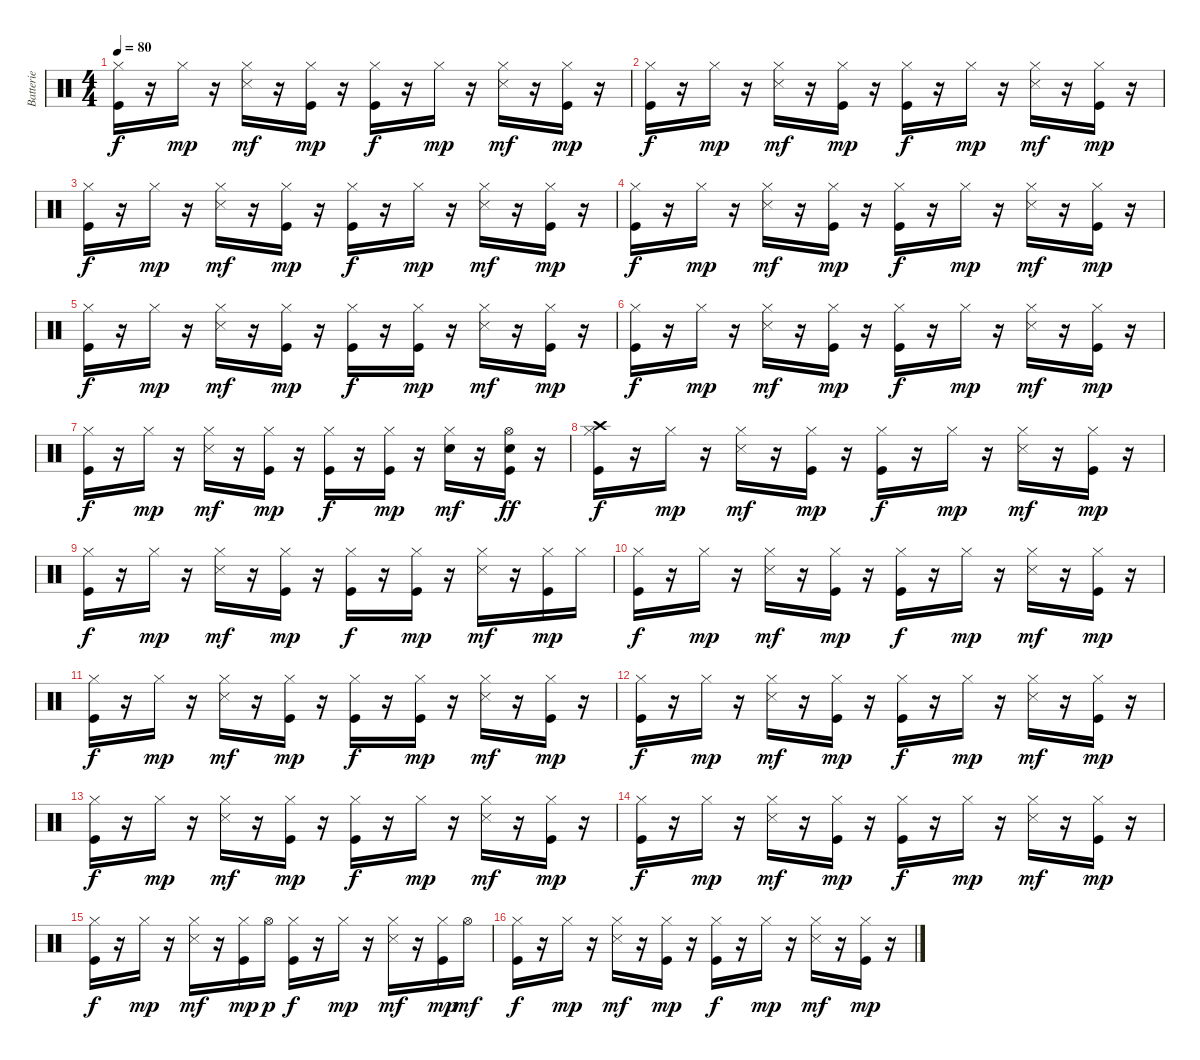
\track ("Batterie" "Batterie") {instrument percussion}
\staff {score}
\articulation defaults
\ts (4 4)
\tempo 80
\clef neutral
\ks c
("Kick (hit)" "Hi-Hat (closed)").16{dy f} r.16 "Hi-Hat (closed)".16{dy mp} r.16 ("Hi-Hat (closed)" "Snare (side stick) 3").16{dy mf} r.16 ("Kick (hit)" "Hi-Hat (closed)").16{dy mp} r.16 ("Kick (hit)" "Hi-Hat (closed)").16{dy f} r.16 "Hi-Hat (closed)".16{dy mp} r.16 ("Hi-Hat (closed)" "Snare (side stick) 3").16{dy mf} r.16 ("Kick (hit)" "Hi-Hat (closed)").16{dy mp} r.16 |
("Kick (hit)" "Hi-Hat (closed)").16{dy f} r.16 "Hi-Hat (closed)".16{dy mp} r.16 ("Hi-Hat (closed)" "Snare (side stick) 3").16{dy mf} r.16 ("Kick (hit)" "Hi-Hat (closed)").16{dy mp} r.16 ("Kick (hit)" "Hi-Hat (closed)").16{dy f} r.16 "Hi-Hat (closed)".16{dy mp} r.16 ("Hi-Hat (closed)" "Snare (side stick) 3").16{dy mf} r.16 ("Kick (hit)" "Hi-Hat (closed)").16{dy mp} r.16 |
("Kick (hit)" "Hi-Hat (closed)").16{dy f} r.16 "Hi-Hat (closed)".16{dy mp} r.16 ("Hi-Hat (closed)" "Snare (side stick) 3").16{dy mf} r.16 ("Kick (hit)" "Hi-Hat (closed)").16{dy mp} r.16 ("Kick (hit)" "Hi-Hat (closed)").16{dy f} r.16 "Hi-Hat (closed)".16{dy mp} r.16 ("Hi-Hat (closed)" "Snare (side stick) 3").16{dy mf} r.16 ("Kick (hit)" "Hi-Hat (closed)").16{dy mp} r.16 |
("Kick (hit)" "Hi-Hat (closed)").16{dy f} r.16 "Hi-Hat (closed)".16{dy mp} r.16 ("Hi-Hat (closed)" "Snare (side stick) 3").16{dy mf} r.16 ("Kick (hit)" "Hi-Hat (closed)").16{dy mp} r.16 ("Kick (hit)" "Hi-Hat (closed)").16{dy f} r.16 "Hi-Hat (closed)".16{dy mp} r.16 ("Hi-Hat (closed)" "Snare (side stick) 3").16{dy mf} r.16 ("Kick (hit)" "Hi-Hat (closed)").16{dy mp} r.16 |
("Kick (hit)" "Hi-Hat (closed)").16{dy f} r.16 "Hi-Hat (closed)".16{dy mp} r.16 ("Hi-Hat (closed)" "Snare (side stick) 3").16{dy mf} r.16 ("Kick (hit)" "Hi-Hat (closed)").16{dy mp} r.16 ("Kick (hit)" "Hi-Hat (closed)").16{dy f} r.16 ("Kick (hit)" "Hi-Hat (closed)").16{dy mp} r.16 ("Hi-Hat (closed)" "Snare (side stick) 3").16{dy mf} r.16 ("Kick (hit)" "Hi-Hat (closed)").16{dy mp} r.16 |
("Kick (hit)" "Hi-Hat (closed)").16{dy f} r.16 "Hi-Hat (closed)".16{dy mp} r.16 ("Hi-Hat (closed)" "Snare (side stick) 3").16{dy mf} r.16 ("Kick (hit)" "Hi-Hat (closed)").16{dy mp} r.16 ("Kick (hit)" "Hi-Hat (closed)").16{dy f} r.16 "Hi-Hat (closed)".16{dy mp} r.16 ("Hi-Hat (closed)" "Snare (side stick) 3").16{dy mf} r.16 ("Kick (hit)" "Hi-Hat (closed)").16{dy mp} r.16 |
("Kick (hit)" "Hi-Hat (closed)").16{dy f} r.16 "Hi-Hat (closed)".16{dy mp} r.16 ("Hi-Hat (closed)" "Snare (side stick) 3").16{dy mf} r.16 ("Kick (hit)" "Hi-Hat (closed)").16{dy mp} r.16 ("Kick (hit)" "Hi-Hat (closed)").16{dy f} r.16 ("Kick (hit)" "Hi-Hat (closed)").16{dy mp} r.16 ("Snare (hit) 2" "Hi-Hat (closed)").16{dy mf} r.16 ("Kick (hit)" "Snare (hit) 2" "Hi-Hat (open)").16{dy ff} r.16 |
("Kick (hit)" "Hi-Hat (closed)" "Crash high (hit)").16{dy f} r.16 "Hi-Hat (closed)".16{dy mp} r.16 ("Hi-Hat (closed)" "Snare (side stick) 3").16{dy mf} r.16 ("Kick (hit)" "Hi-Hat (closed)").16{dy mp} r.16 ("Kick (hit)" "Hi-Hat (closed)").16{dy f} r.16 "Hi-Hat (closed)".16{dy mp} r.16 ("Hi-Hat (closed)" "Snare (side stick) 3").16{dy mf} r.16 ("Kick (hit)" "Hi-Hat (closed)").16{dy mp} r.16 |
("Kick (hit)" "Hi-Hat (closed)").16{dy f} r.16 "Hi-Hat (closed)".16{dy mp} r.16 ("Hi-Hat (closed)" "Snare (side stick) 3").16{dy mf} r.16 ("Kick (hit)" "Hi-Hat (closed)").16{dy mp} r.16 ("Kick (hit)" "Hi-Hat (closed)").16{dy f} r.16 ("Kick (hit)" "Hi-Hat (closed)").16{dy mp} r.16 ("Hi-Hat (closed)" "Snare (side stick) 3").16{dy mf} r.16 ("Kick (hit)" "Hi-Hat (closed)").16{dy mp} "Hi-Hat (closed)".16 |
("Kick (hit)" "Hi-Hat (closed)").16{dy f} r.16 "Hi-Hat (closed)".16{dy mp} r.16 ("Hi-Hat (closed)" "Snare (side stick) 3").16{dy mf} r.16 ("Kick (hit)" "Hi-Hat (closed)").16{dy mp} r.16 ("Kick (hit)" "Hi-Hat (closed)").16{dy f} r.16 "Hi-Hat (closed)".16{dy mp} r.16 ("Hi-Hat (closed)" "Snare (side stick) 3").16{dy mf} r.16 ("Kick (hit)" "Hi-Hat (closed)").16{dy mp} r.16 |
("Kick (hit)" "Hi-Hat (closed)").16{dy f} r.16 "Hi-Hat (closed)".16{dy mp} r.16 ("Hi-Hat (closed)" "Snare (side stick) 3").16{dy mf} r.16 ("Kick (hit)" "Hi-Hat (closed)").16{dy mp} r.16 ("Kick (hit)" "Hi-Hat (closed)").16{dy f} r.16 ("Kick (hit)" "Hi-Hat (closed)").16{dy mp} r.16 ("Hi-Hat (closed)" "Snare (side stick) 3").16{dy mf} r.16 ("Kick (hit)" "Hi-Hat (closed)").16{dy mp} r.16 |
("Kick (hit)" "Hi-Hat (closed)").16{dy f} r.16 "Hi-Hat (closed)".16{dy mp} r.16 ("Hi-Hat (closed)" "Snare (side stick) 3").16{dy mf} r.16 ("Kick (hit)" "Hi-Hat (closed)").16{dy mp} r.16 ("Kick (hit)" "Hi-Hat (closed)").16{dy f} r.16 "Hi-Hat (closed)".16{dy mp} r.16 ("Hi-Hat (closed)" "Snare (side stick) 3").16{dy mf} r.16 ("Kick (hit)" "Hi-Hat (closed)").16{dy mp} r.16 |
("Kick (hit)" "Hi-Hat (closed)").16{dy f} r.16 "Hi-Hat (closed)".16{dy mp} r.16 ("Hi-Hat (closed)" "Snare (side stick) 3").16{dy mf} r.16 ("Kick (hit)" "Hi-Hat (closed)").16{dy mp} r.16 ("Kick (hit)" "Hi-Hat (closed)").16{dy f} r.16 "Hi-Hat (closed)".16{dy mp} r.16 ("Hi-Hat (closed)" "Snare (side stick) 3").16{dy mf} r.16 ("Kick (hit)" "Hi-Hat (closed)").16{dy mp} r.16 |
("Kick (hit)" "Hi-Hat (closed)").16{dy f} r.16 "Hi-Hat (closed)".16{dy mp} r.16 ("Hi-Hat (closed)" "Snare (side stick) 3").16{dy mf} r.16 ("Kick (hit)" "Hi-Hat (closed)").16{dy mp} r.16 ("Kick (hit)" "Hi-Hat (closed)").16{dy f} r.16 "Hi-Hat (closed)".16{dy mp} r.16 ("Hi-Hat (closed)" "Snare (side stick) 3").16{dy mf} r.16 ("Kick (hit)" "Hi-Hat (closed)").16{dy mp} r.16 |
("Kick (hit)" "Hi-Hat (closed)").16{dy f} r.16 "Hi-Hat (closed)".16{dy mp} r.16 ("Hi-Hat (closed)" "Snare (side stick) 3").16{dy mf} r.16 ("Kick (hit)" "Hi-Hat (closed)").16{dy mp} "Hi-Hat (open)".16{dy p} ("Kick (hit)" "Hi-Hat (closed)").16{dy f} r.16 "Hi-Hat (closed)".16{dy mp} r.16 ("Hi-Hat (closed)" "Snare (side stick) 3").16{dy mf} r.16 ("Kick (hit)" "Hi-Hat (closed)").16{dy mp} "Hi-Hat (open)".16{dy mf} |
("Kick (hit)" "Hi-Hat (closed)").16{dy f} r.16 "Hi-Hat (closed)".16{dy mp} r.16 ("Hi-Hat (closed)" "Snare (side stick) 3").16{dy mf} r.16 ("Kick (hit)" "Hi-Hat (closed)").16{dy mp} r.16 ("Kick (hit)" "Hi-Hat (closed)").16{dy f} r.16 "Hi-Hat (closed)".16{dy mp} r.16 ("Hi-Hat (closed)" "Snare (side stick) 3").16{dy mf} r.16 ("Kick (hit)" "Hi-Hat (closed)").16{dy mp} r.16
